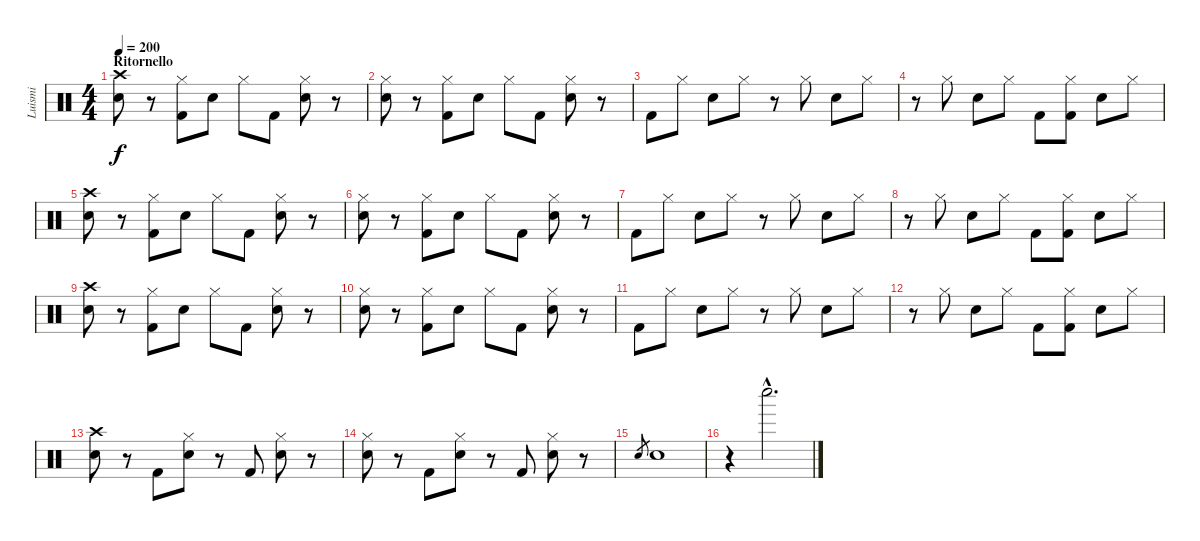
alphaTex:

\track ("Luismi" "Luismi") {instrument percussion}
\staff {score}
\articulation defaults
\ts (4 4)
\section ("" "Ritornello")
\tempo 200
\clef neutral
\ks c
("Crash high (hit)" "Electric Snare (hit)").8{dy f} r.8 ("Hi-Hat (closed)" "Kick (hit) 2").8 "Electric Snare (hit)".8 "Hi-Hat (closed)".8 "Kick (hit) 2".8 ("Hi-Hat (closed)" "Electric Snare (hit)").8 r.8 |
("Hi-Hat (closed)" "Electric Snare (hit)").8 r.8 ("Hi-Hat (closed)" "Kick (hit) 2").8 "Electric Snare (hit)".8 "Hi-Hat (closed)".8 "Kick (hit) 2".8 ("Hi-Hat (closed)" "Electric Snare (hit)").8 r.8 |
"Kick (hit) 2".8 "Hi-Hat (closed)".8 "Electric Snare (hit)".8 "Hi-Hat (closed)".8 r.8 "Hi-Hat (closed)".8 "Electric Snare (hit)".8 "Hi-Hat (closed)".8 |
r.8 "Hi-Hat (closed)".8 "Electric Snare (hit)".8 "Hi-Hat (closed)".8 "Kick (hit) 2".8 ("Hi-Hat (closed)" "Kick (hit) 2").8 "Electric Snare (hit)".8 "Hi-Hat (closed)".8 |
("Crash high (hit)" "Electric Snare (hit)").8 r.8 ("Hi-Hat (closed)" "Kick (hit) 2").8 "Electric Snare (hit)".8 "Hi-Hat (closed)".8 "Kick (hit) 2".8 ("Hi-Hat (closed)" "Electric Snare (hit)").8 r.8 |
("Hi-Hat (closed)" "Electric Snare (hit)").8 r.8 ("Hi-Hat (closed)" "Kick (hit) 2").8 "Electric Snare (hit)".8 "Hi-Hat (closed)".8 "Kick (hit) 2".8 ("Hi-Hat (closed)" "Electric Snare (hit)").8 r.8 |
"Kick (hit) 2".8 "Hi-Hat (closed)".8 "Electric Snare (hit)".8 "Hi-Hat (closed)".8 r.8 "Hi-Hat (closed)".8 "Electric Snare (hit)".8 "Hi-Hat (closed)".8 |
r.8 "Hi-Hat (closed)".8 "Electric Snare (hit)".8 "Hi-Hat (closed)".8 "Kick (hit) 2".8 ("Hi-Hat (closed)" "Kick (hit) 2").8 "Electric Snare (hit)".8 "Hi-Hat (closed)".8 |
("Crash high (hit)" "Electric Snare (hit)").8 r.8 ("Hi-Hat (closed)" "Kick (hit) 2").8 "Electric Snare (hit)".8 "Hi-Hat (closed)".8 "Kick (hit) 2".8 ("Hi-Hat (closed)" "Electric Snare (hit)").8 r.8 |
("Hi-Hat (closed)" "Electric Snare (hit)").8 r.8 ("Hi-Hat (closed)" "Kick (hit) 2").8 "Electric Snare (hit)".8 "Hi-Hat (closed)".8 "Kick (hit) 2".8 ("Hi-Hat (closed)" "Electric Snare (hit)").8 r.8 |
"Kick (hit) 2".8 "Hi-Hat (closed)".8 "Electric Snare (hit)".8 "Hi-Hat (closed)".8 r.8 "Hi-Hat (closed)".8 "Electric Snare (hit)".8 "Hi-Hat (closed)".8 |
r.8 "Hi-Hat (closed)".8 "Electric Snare (hit)".8 "Hi-Hat (closed)".8 "Kick (hit) 2".8 ("Hi-Hat (closed)" "Kick (hit) 2").8 "Electric Snare (hit)".8 "Hi-Hat (closed)".8 |
("Crash high (hit)" "Electric Snare (hit)").8 r.8 "Kick (hit) 2".8 ("Hi-Hat (closed)" "Electric Snare (hit)").8 r.8 "Kick (hit) 2".8 ("Hi-Hat (closed)" "Electric Snare (hit)").8 r.8 |
("Hi-Hat (closed)" "Electric Snare (hit)").8 r.8 "Kick (hit) 2".8 ("Hi-Hat (closed)" "Electric Snare (hit)").8 r.8 "Kick (hit) 2".8 ("Hi-Hat (closed)" "Electric Snare (hit)").8 r.8 |
"Electric Snare (hit)".8{gr} "Electric Snare (hit)".1 |
r.4 "Whistle low (hit)"{hac}.2{d}
